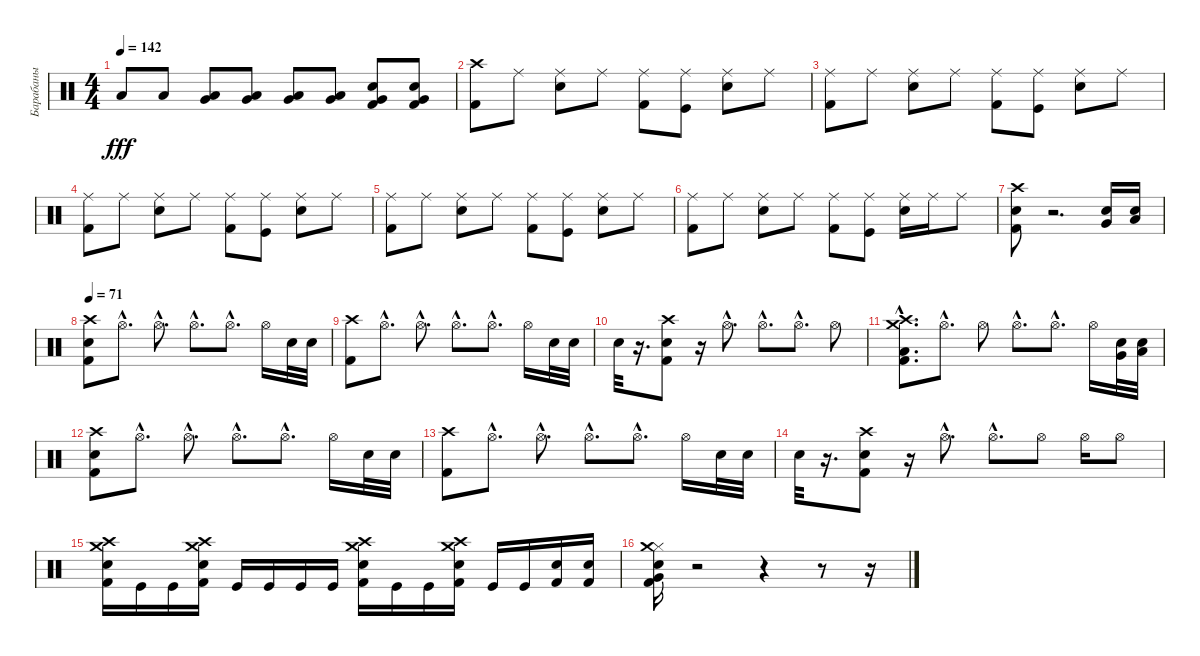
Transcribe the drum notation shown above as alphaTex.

\track ("Барабаны" "Барабаны") {instrument percussion}
\staff {score}
\articulation defaults
\ts (4 4)
\tempo 142
\clef neutral
\ks c "Low Floor Tom (hit)".8{dy fff} "Low Floor Tom (hit)".8
("Low Floor Tom (hit)" "Very Low Tom (hit)").8 ("Low Floor Tom (hit)" "Very Low Tom (hit)").8 ("Very Low Tom (hit)" "Low Tom (hit)").8 ("Very Low Tom (hit)" "Low Tom (hit)").8 ("Kick (hit) 2" "Very Low Tom (hit)" "Snare (hit) 2").8 ("Kick (hit) 2" "Very Low Tom (hit)" "Snare (hit) 2").8 |
("Crash high (hit)" "Kick (hit) 2").8 "Ride (middle)".8 ("Snare (hit) 2" "Ride (middle)").8 "Ride (middle)".8 ("Kick (hit) 2" "Ride (middle)").8 ("Kick (hit)" "Ride (middle)").8 ("Snare (hit) 2" "Ride (middle)").8 "Ride (middle)".8 |
("Kick (hit) 2" "Ride (middle)").8 "Ride (middle)".8 ("Snare (hit) 2" "Ride (middle)").8 "Ride (middle)".8 ("Kick (hit) 2" "Ride (middle)").8 ("Kick (hit)" "Ride (middle)").8 ("Snare (hit) 2" "Ride (middle)").8 "Ride (middle)".8 |
("Kick (hit) 2" "Ride (middle)").8 "Ride (middle)".8 ("Snare (hit) 2" "Ride (middle)").8 "Ride (middle)".8 ("Kick (hit) 2" "Ride (middle)").8 ("Kick (hit)" "Ride (middle)").8 ("Snare (hit) 2" "Ride (middle)").8 "Ride (middle)".8 |
("Kick (hit) 2" "Ride (middle)").8 "Ride (middle)".8 ("Snare (hit) 2" "Ride (middle)").8 "Ride (middle)".8 ("Kick (hit) 2" "Ride (middle)").8 ("Kick (hit)" "Ride (middle)").8 ("Snare (hit) 2" "Ride (middle)").8 "Ride (middle)".8 |
("Ride (middle)" "Kick (hit) 2").8 "Ride (middle)".8 ("Ride (middle)" "Snare (hit) 2").8 "Ride (middle)".8 ("Kick (hit) 2" "Ride (middle)").8 ("Kick (hit)" "Ride (middle)").8 ("Snare (hit) 2" "Ride (middle)").16 "Ride (middle)".16 "Ride (middle)".8 |
("Crash high (hit)" "Snare (hit) 2" "Kick (hit) 2").8 r.2{d} ("Very Low Tom (hit)" "Electric Snare (hit)").16 ("Low Floor Tom (hit)" "Electric Snare (hit)").16 |
\tempo 71
("Crash high (hit)" "Snare (hit) 2" "Kick (hit) 2").8 "Hi-Hat (open)"{hac}.8{d} "Hi-Hat (open)"{hac}.8{d} "Hi-Hat (open)"{hac}.8{d} "Hi-Hat (open)"{hac}.8{d} "Hi-Hat (open)".16 "Electric Snare (hit)".32 "Electric Snare (hit)".32 |
("Crash high (hit)" "Kick (hit) 2").8 "Hi-Hat (open)"{hac}.8{d} "Hi-Hat (open)"{hac}.8{d} "Hi-Hat (open)"{hac}.8{d} "Hi-Hat (open)"{hac}.8{d} "Hi-Hat (open)".16 "Electric Snare (hit)".32 "Electric Snare (hit)".32 |
"Electric Snare (hit)".32 r.16{d} ("Crash high (hit)" "Snare (hit) 2" "Kick (hit) 2").8 r.16 "Hi-Hat (open)"{hac}.8{d} "Hi-Hat (open)"{hac}.8{d} "Hi-Hat (open)"{hac}.8{d} "Hi-Hat (open)".8 |
("Crash high (hit)"{hac} "Low Floor Tom (hit)"{hac} "Kick (hit) 2"{hac} "Crash medium (hit)"{hac}).8{d} "Hi-Hat (open)"{hac}.8{d} "Hi-Hat (open)".8 "Hi-Hat (open)"{hac}.8{d} "Hi-Hat (open)"{hac}.8{d} "Hi-Hat (open)".16 ("Electric Snare (hit)" "Very Low Tom (hit)").32 ("Electric Snare (hit)" "Low Floor Tom (hit)").32 |
("Crash high (hit)" "Snare (hit) 2" "Kick (hit) 2").8 "Hi-Hat (open)"{hac}.8{d} "Hi-Hat (open)"{hac}.8{d} "Hi-Hat (open)"{hac}.8{d} "Hi-Hat (open)"{hac}.8{d} "Hi-Hat (open)".16 "Electric Snare (hit)".32 "Electric Snare (hit)".32 |
("Crash high (hit)" "Kick (hit) 2").8 "Hi-Hat (open)"{hac}.8{d} "Hi-Hat (open)"{hac}.8{d} "Hi-Hat (open)"{hac}.8{d} "Hi-Hat (open)"{hac}.8{d} "Hi-Hat (open)".16 "Electric Snare (hit)".32 "Electric Snare (hit)".32 |
"Electric Snare (hit)".32 r.16{d} ("Crash high (hit)" "Snare (hit) 2" "Kick (hit) 2").8 r.16 "Hi-Hat (open)"{hac}.8{d} "Hi-Hat (open)"{hac}.8{d} "Hi-Hat (open)".8 "Hi-Hat (open)".16 "Hi-Hat (open)".8 |
("Crash high (hit)" "Crash medium (hit)" "Electric Snare (hit)" "Kick (hit) 2").16 "Kick (hit)".16 "Kick (hit)".16 ("Crash high (hit)" "Crash medium (hit)" "Snare (hit) 2" "Kick (hit) 2").16 "Kick (hit)".16 "Kick (hit)".16 "Kick (hit)".16 "Kick (hit)".16 ("Crash medium (hit)" "Crash high (hit)" "Snare (hit) 2" "Kick (hit) 2").16 "Kick (hit)".16 "Kick (hit)".16 ("Crash medium (hit)" "Crash high (hit)" "Snare (hit) 2" "Kick (hit) 2").16 "Kick (hit)".16 "Kick (hit)".16 ("Kick (hit) 2" "Snare (hit) 2").16 ("Kick (hit) 2" "Snare (hit) 2").16 |
("Very Low Tom (hit)" "Kick (hit) 2" "Hi-Hat (closed)" "Crash medium (hit)" "Snare (hit) 2").16 r.2 r.4 r.8 r.16
